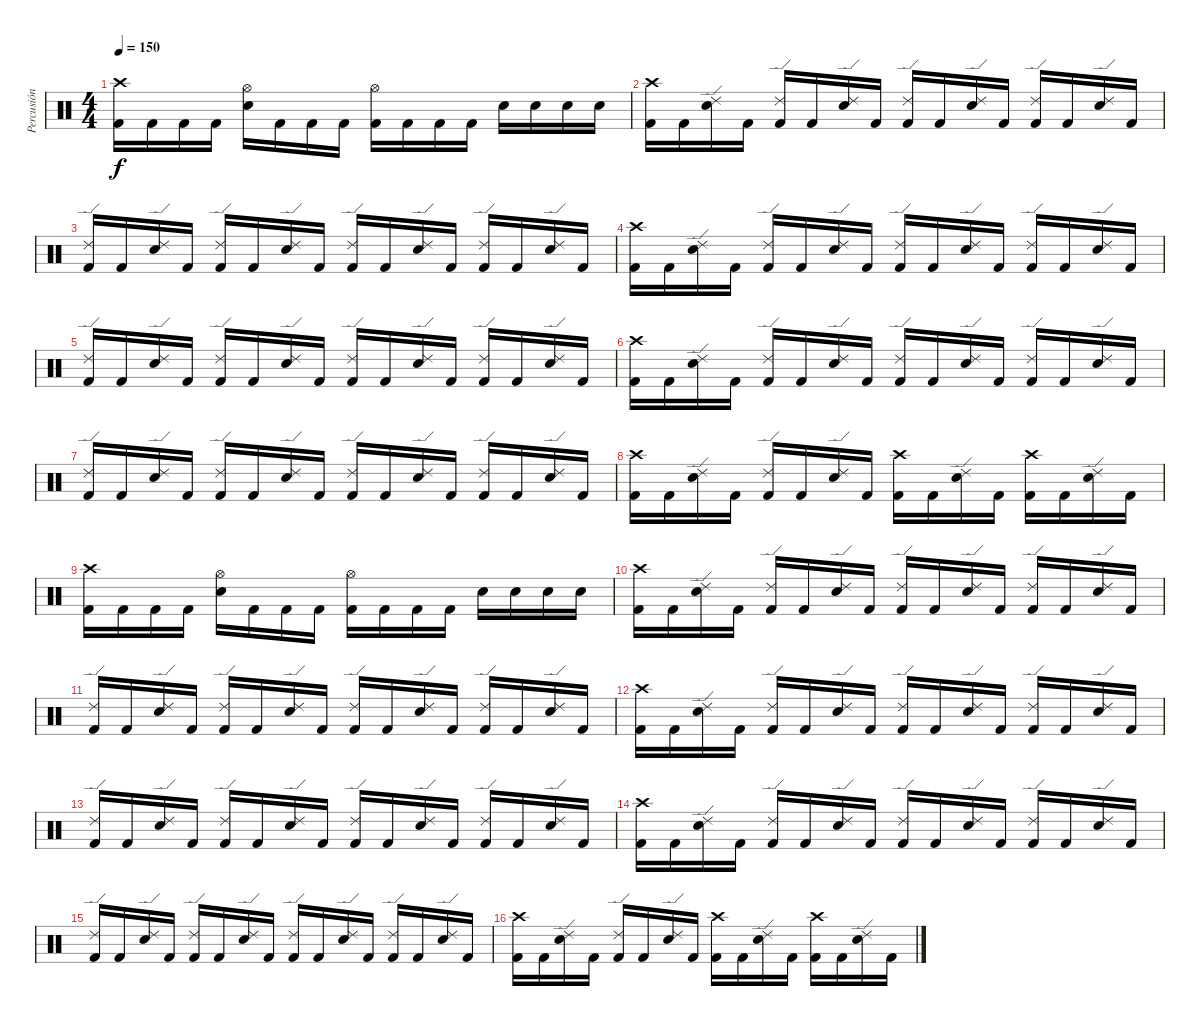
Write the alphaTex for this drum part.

\track ("Percusión" "Percusión") {instrument percussion}
\staff {score}
\articulation defaults
\ts (4 4)
\tempo 150
\clef neutral
\ks c
("Crash high (hit)" "Kick (hit) 2").16{dy f} "Kick (hit) 2".16 "Kick (hit) 2".16 "Kick (hit) 2".16 ("Hi-Hat (open)" "Electric Snare (hit)").16 "Kick (hit) 2".16 "Kick (hit) 2".16 "Kick (hit) 2".16 ("Hi-Hat (open)" "Kick (hit) 2").16 "Kick (hit) 2".16 "Kick (hit) 2".16 "Kick (hit) 2".16 "Electric Snare (hit)".16 "Electric Snare (hit)".16 "Electric Snare (hit)".16 "Electric Snare (hit)".16 |
("Crash high (hit)" "Kick (hit) 2").16 "Kick (hit) 2".16 ("Ride (edge) 2" "Electric Snare (hit)").16 "Kick (hit) 2".16 ("Ride (edge) 2" "Kick (hit) 2").16 "Kick (hit) 2".16 ("Ride (edge) 2" "Electric Snare (hit)").16 "Kick (hit) 2".16 ("Ride (edge) 2" "Kick (hit) 2").16 "Kick (hit) 2".16 ("Ride (edge) 2" "Electric Snare (hit)").16 "Kick (hit) 2".16 ("Ride (edge) 2" "Kick (hit) 2").16 "Kick (hit) 2".16 ("Ride (edge) 2" "Electric Snare (hit)").16 "Kick (hit) 2".16 |
("Ride (edge) 2" "Kick (hit) 2").16 "Kick (hit) 2".16 ("Ride (edge) 2" "Electric Snare (hit)").16 "Kick (hit) 2".16 ("Ride (edge) 2" "Kick (hit) 2").16 "Kick (hit) 2".16 ("Ride (edge) 2" "Electric Snare (hit)").16 "Kick (hit) 2".16 ("Ride (edge) 2" "Kick (hit) 2").16 "Kick (hit) 2".16 ("Ride (edge) 2" "Electric Snare (hit)").16 "Kick (hit) 2".16 ("Ride (edge) 2" "Kick (hit) 2").16 "Kick (hit) 2".16 ("Ride (edge) 2" "Electric Snare (hit)").16 "Kick (hit) 2".16 |
("Crash high (hit)" "Kick (hit) 2").16 "Kick (hit) 2".16 ("Ride (edge) 2" "Electric Snare (hit)").16 "Kick (hit) 2".16 ("Ride (edge) 2" "Kick (hit) 2").16 "Kick (hit) 2".16 ("Ride (edge) 2" "Electric Snare (hit)").16 "Kick (hit) 2".16 ("Ride (edge) 2" "Kick (hit) 2").16 "Kick (hit) 2".16 ("Ride (edge) 2" "Electric Snare (hit)").16 "Kick (hit) 2".16 ("Ride (edge) 2" "Kick (hit) 2").16 "Kick (hit) 2".16 ("Ride (edge) 2" "Electric Snare (hit)").16 "Kick (hit) 2".16 |
("Ride (edge) 2" "Kick (hit) 2").16 "Kick (hit) 2".16 ("Ride (edge) 2" "Electric Snare (hit)").16 "Kick (hit) 2".16 ("Ride (edge) 2" "Kick (hit) 2").16 "Kick (hit) 2".16 ("Ride (edge) 2" "Electric Snare (hit)").16 "Kick (hit) 2".16 ("Ride (edge) 2" "Kick (hit) 2").16 "Kick (hit) 2".16 ("Ride (edge) 2" "Electric Snare (hit)").16 "Kick (hit) 2".16 ("Ride (edge) 2" "Kick (hit) 2").16 "Kick (hit) 2".16 ("Ride (edge) 2" "Electric Snare (hit)").16 "Kick (hit) 2".16 |
("Crash high (hit)" "Kick (hit) 2").16 "Kick (hit) 2".16 ("Ride (edge) 2" "Electric Snare (hit)").16 "Kick (hit) 2".16 ("Ride (edge) 2" "Kick (hit) 2").16 "Kick (hit) 2".16 ("Ride (edge) 2" "Electric Snare (hit)").16 "Kick (hit) 2".16 ("Ride (edge) 2" "Kick (hit) 2").16 "Kick (hit) 2".16 ("Ride (edge) 2" "Electric Snare (hit)").16 "Kick (hit) 2".16 ("Ride (edge) 2" "Kick (hit) 2").16 "Kick (hit) 2".16 ("Ride (edge) 2" "Electric Snare (hit)").16 "Kick (hit) 2".16 |
("Ride (edge) 2" "Kick (hit) 2").16 "Kick (hit) 2".16 ("Ride (edge) 2" "Electric Snare (hit)").16 "Kick (hit) 2".16 ("Ride (edge) 2" "Kick (hit) 2").16 "Kick (hit) 2".16 ("Ride (edge) 2" "Electric Snare (hit)").16 "Kick (hit) 2".16 ("Ride (edge) 2" "Kick (hit) 2").16 "Kick (hit) 2".16 ("Ride (edge) 2" "Electric Snare (hit)").16 "Kick (hit) 2".16 ("Ride (edge) 2" "Kick (hit) 2").16 "Kick (hit) 2".16 ("Ride (edge) 2" "Electric Snare (hit)").16 "Kick (hit) 2".16 |
("Crash high (hit)" "Kick (hit) 2").16 "Kick (hit) 2".16 ("Ride (edge) 2" "Electric Snare (hit)").16 "Kick (hit) 2".16 ("Ride (edge) 2" "Kick (hit) 2").16 "Kick (hit) 2".16 ("Ride (edge) 2" "Electric Snare (hit)").16 "Kick (hit) 2".16 ("Crash high (hit)" "Kick (hit) 2").16 "Kick (hit) 2".16 ("Ride (edge) 2" "Electric Snare (hit)").16 "Kick (hit) 2".16 ("Crash high (hit)" "Kick (hit) 2").16 "Kick (hit) 2".16 ("Ride (edge) 2" "Electric Snare (hit)").16 "Kick (hit) 2".16 |
("Crash high (hit)" "Kick (hit) 2").16 "Kick (hit) 2".16 "Kick (hit) 2".16 "Kick (hit) 2".16 ("Hi-Hat (open)" "Electric Snare (hit)").16 "Kick (hit) 2".16 "Kick (hit) 2".16 "Kick (hit) 2".16 ("Hi-Hat (open)" "Kick (hit) 2").16 "Kick (hit) 2".16 "Kick (hit) 2".16 "Kick (hit) 2".16 "Electric Snare (hit)".16 "Electric Snare (hit)".16 "Electric Snare (hit)".16 "Electric Snare (hit)".16 |
("Crash high (hit)" "Kick (hit) 2").16 "Kick (hit) 2".16 ("Ride (edge) 2" "Electric Snare (hit)").16 "Kick (hit) 2".16 ("Ride (edge) 2" "Kick (hit) 2").16 "Kick (hit) 2".16 ("Ride (edge) 2" "Electric Snare (hit)").16 "Kick (hit) 2".16 ("Ride (edge) 2" "Kick (hit) 2").16 "Kick (hit) 2".16 ("Ride (edge) 2" "Electric Snare (hit)").16 "Kick (hit) 2".16 ("Ride (edge) 2" "Kick (hit) 2").16 "Kick (hit) 2".16 ("Ride (edge) 2" "Electric Snare (hit)").16 "Kick (hit) 2".16 |
("Ride (edge) 2" "Kick (hit) 2").16 "Kick (hit) 2".16 ("Ride (edge) 2" "Electric Snare (hit)").16 "Kick (hit) 2".16 ("Ride (edge) 2" "Kick (hit) 2").16 "Kick (hit) 2".16 ("Ride (edge) 2" "Electric Snare (hit)").16 "Kick (hit) 2".16 ("Ride (edge) 2" "Kick (hit) 2").16 "Kick (hit) 2".16 ("Ride (edge) 2" "Electric Snare (hit)").16 "Kick (hit) 2".16 ("Ride (edge) 2" "Kick (hit) 2").16 "Kick (hit) 2".16 ("Ride (edge) 2" "Electric Snare (hit)").16 "Kick (hit) 2".16 |
("Crash high (hit)" "Kick (hit) 2").16 "Kick (hit) 2".16 ("Ride (edge) 2" "Electric Snare (hit)").16 "Kick (hit) 2".16 ("Ride (edge) 2" "Kick (hit) 2").16 "Kick (hit) 2".16 ("Ride (edge) 2" "Electric Snare (hit)").16 "Kick (hit) 2".16 ("Ride (edge) 2" "Kick (hit) 2").16 "Kick (hit) 2".16 ("Ride (edge) 2" "Electric Snare (hit)").16 "Kick (hit) 2".16 ("Ride (edge) 2" "Kick (hit) 2").16 "Kick (hit) 2".16 ("Ride (edge) 2" "Electric Snare (hit)").16 "Kick (hit) 2".16 |
("Ride (edge) 2" "Kick (hit) 2").16 "Kick (hit) 2".16 ("Ride (edge) 2" "Electric Snare (hit)").16 "Kick (hit) 2".16 ("Ride (edge) 2" "Kick (hit) 2").16 "Kick (hit) 2".16 ("Ride (edge) 2" "Electric Snare (hit)").16 "Kick (hit) 2".16 ("Ride (edge) 2" "Kick (hit) 2").16 "Kick (hit) 2".16 ("Ride (edge) 2" "Electric Snare (hit)").16 "Kick (hit) 2".16 ("Ride (edge) 2" "Kick (hit) 2").16 "Kick (hit) 2".16 ("Ride (edge) 2" "Electric Snare (hit)").16 "Kick (hit) 2".16 |
("Crash high (hit)" "Kick (hit) 2").16 "Kick (hit) 2".16 ("Ride (edge) 2" "Electric Snare (hit)").16 "Kick (hit) 2".16 ("Ride (edge) 2" "Kick (hit) 2").16 "Kick (hit) 2".16 ("Ride (edge) 2" "Electric Snare (hit)").16 "Kick (hit) 2".16 ("Ride (edge) 2" "Kick (hit) 2").16 "Kick (hit) 2".16 ("Ride (edge) 2" "Electric Snare (hit)").16 "Kick (hit) 2".16 ("Ride (edge) 2" "Kick (hit) 2").16 "Kick (hit) 2".16 ("Ride (edge) 2" "Electric Snare (hit)").16 "Kick (hit) 2".16 |
("Ride (edge) 2" "Kick (hit) 2").16 "Kick (hit) 2".16 ("Ride (edge) 2" "Electric Snare (hit)").16 "Kick (hit) 2".16 ("Ride (edge) 2" "Kick (hit) 2").16 "Kick (hit) 2".16 ("Ride (edge) 2" "Electric Snare (hit)").16 "Kick (hit) 2".16 ("Ride (edge) 2" "Kick (hit) 2").16 "Kick (hit) 2".16 ("Ride (edge) 2" "Electric Snare (hit)").16 "Kick (hit) 2".16 ("Ride (edge) 2" "Kick (hit) 2").16 "Kick (hit) 2".16 ("Ride (edge) 2" "Electric Snare (hit)").16 "Kick (hit) 2".16 |
("Crash high (hit)" "Kick (hit) 2").16 "Kick (hit) 2".16 ("Ride (edge) 2" "Electric Snare (hit)").16 "Kick (hit) 2".16 ("Ride (edge) 2" "Kick (hit) 2").16 "Kick (hit) 2".16 ("Ride (edge) 2" "Electric Snare (hit)").16 "Kick (hit) 2".16 ("Crash high (hit)" "Kick (hit) 2").16 "Kick (hit) 2".16 ("Ride (edge) 2" "Electric Snare (hit)").16 "Kick (hit) 2".16 ("Crash high (hit)" "Kick (hit) 2").16 "Kick (hit) 2".16 ("Ride (edge) 2" "Electric Snare (hit)").16 "Kick (hit) 2".16
